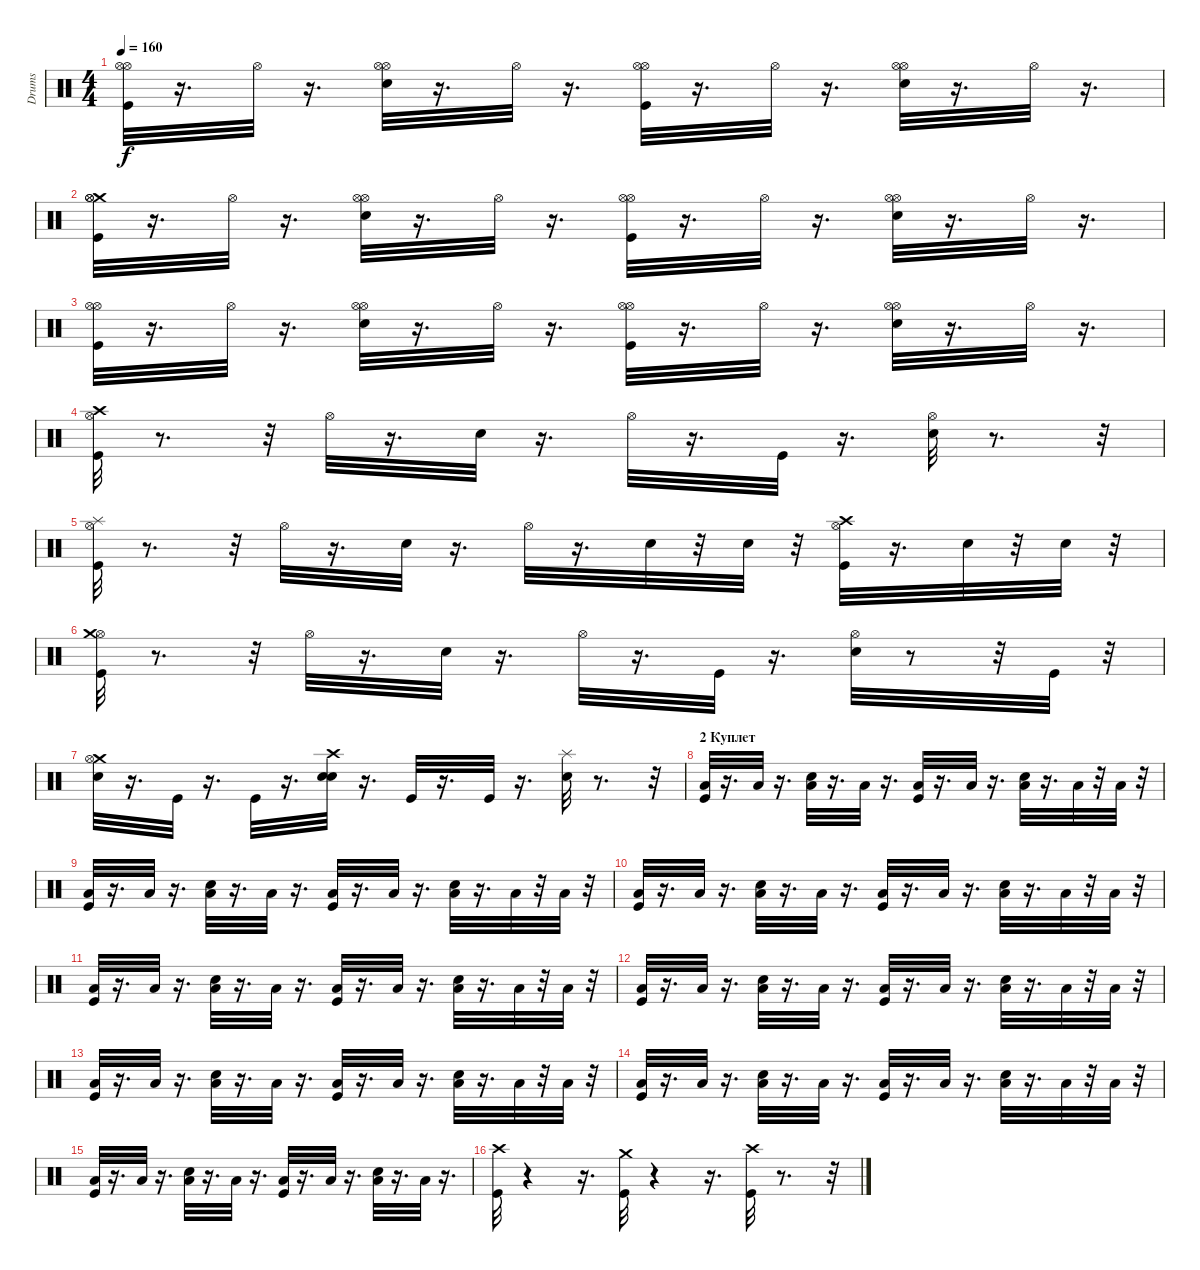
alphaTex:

\track ("Drums" "Drums") {instrument percussion}
\staff {score}
\articulation defaults
\ts (4 4)
\tempo 160
\clef neutral
\ks c
("Kick (hit)" "Hi-Hat (open)" "Hi-Hat (open)").32{dy f} r.16{d} "Hi-Hat (open)".32 r.16{d} ("Snare (hit) 2" "Hi-Hat (open)" "Hi-Hat (open)").32 r.16{d} "Hi-Hat (open)".32 r.16{d} ("Hi-Hat (open)" "Kick (hit)" "Hi-Hat (open)").32 r.16{d} "Hi-Hat (open)".32 r.16{d} ("Hi-Hat (open)" "Snare (hit) 2" "Hi-Hat (open)").32 r.16{d} "Hi-Hat (open)".32 r.16{d} |
("Crash medium (hit)" "Kick (hit)" "Hi-Hat (open)" "Hi-Hat (open)").32 r.16{d} "Hi-Hat (open)".32 r.16{d} ("Hi-Hat (open)" "Hi-Hat (open)" "Snare (hit) 2").32 r.16{d} "Hi-Hat (open)".32 r.16{d} ("Kick (hit)" "Hi-Hat (open)" "Hi-Hat (open)").32 r.16{d} "Hi-Hat (open)".32 r.16{d} ("Snare (hit) 2" "Hi-Hat (open)" "Hi-Hat (open)").32 r.16{d} "Hi-Hat (open)".32 r.16{d} |
("Kick (hit)" "Hi-Hat (open)" "Hi-Hat (open)").32 r.16{d} "Hi-Hat (open)".32 r.16{d} ("Hi-Hat (open)" "Snare (hit) 2" "Hi-Hat (open)").32 r.16{d} "Hi-Hat (open)".32 r.16{d} ("Kick (hit)" "Hi-Hat (open)" "Hi-Hat (open)").32 r.16{d} "Hi-Hat (open)".32 r.16{d} ("Snare (hit) 2" "Hi-Hat (open)" "Hi-Hat (open)").32 r.16{d} "Hi-Hat (open)".32 r.16{d} |
("Hi-Hat (open)" "Kick (hit)" "Crash high (hit)").32 r.8{d} r.32 "Hi-Hat (open)".32 r.16{d} "Snare (hit) 2".32 r.16{d} "Hi-Hat (open)".32 r.16{d} "Kick (hit)".32 r.16{d} ("Hi-Hat (open)" "Snare (hit) 2").32 r.8{d} r.32 |
("Hi-Hat (open)" "Splash (hit)" "Kick (hit)").32 r.8{d} r.32 "Hi-Hat (open)".32 r.16{d} "Snare (hit) 2".32 r.16{d} "Hi-Hat (open)".32 r.16{d} "Snare (hit) 2".32 r.32 "Snare (hit) 2".32 r.32 ("Hi-Hat (open)" "Crash high (hit)" "Kick (hit)").32 r.16{d} "Snare (hit) 2".32 r.32 "Snare (hit) 2".32 r.32 |
("Hi-Hat (open)" "Kick (hit)" "Crash medium (hit)").32 r.8{d} r.32 "Hi-Hat (open)".32 r.16{d} "Snare (hit) 2".32 r.16{d} "Hi-Hat (open)".32 r.16{d} "Kick (hit)".32 r.16{d} ("Snare (hit) 2" "Hi-Hat (open)").32 r.8 r.32 "Kick (hit)".32 r.32 |
("Crash medium (hit)" "Snare (hit) 2" "Hi-Hat (open)").32 r.16{d} "Kick (hit)".32 r.16{d} "Kick (hit)".32 r.16{d} ("Crash high (hit)" "Snare (hit) 2" "Snare (hit) 2").32 r.16{d} "Kick (hit)".32 r.16{d} "Kick (hit)".32 r.16{d} ("Splash (hit)" "Snare (hit) 2").32 r.8{d} r.32 |
\section ("" "2 Куплет")
("Kick (hit)" "Low Floor Tom (hit)").32 r.16{d} "Low Floor Tom (hit)".32 r.16{d} ("Low Floor Tom (hit)" "Snare (hit) 2").32 r.16{d} "Low Floor Tom (hit)".32 r.16{d} ("Kick (hit)" "Low Floor Tom (hit)").32 r.16{d} "Low Floor Tom (hit)".32 r.16{d} ("Low Floor Tom (hit)" "Snare (hit) 2").32 r.16{d} "Low Floor Tom (hit)".32 r.32 "Low Floor Tom (hit)".32 r.32 |
("Kick (hit)" "Low Floor Tom (hit)").32 r.16{d} "Low Floor Tom (hit)".32 r.16{d} ("Low Floor Tom (hit)" "Snare (hit) 2").32 r.16{d} "Low Floor Tom (hit)".32 r.16{d} ("Low Floor Tom (hit)" "Kick (hit)").32 r.16{d} "Low Floor Tom (hit)".32 r.16{d} ("Snare (hit) 2" "Low Floor Tom (hit)").32 r.16{d} "Low Floor Tom (hit)".32 r.32 "Low Floor Tom (hit)".32 r.32 |
("Kick (hit)" "Low Floor Tom (hit)").32 r.16{d} "Low Floor Tom (hit)".32 r.16{d} ("Low Floor Tom (hit)" "Snare (hit) 2").32 r.16{d} "Low Floor Tom (hit)".32 r.16{d} ("Kick (hit)" "Low Floor Tom (hit)").32 r.16{d} "Low Floor Tom (hit)".32 r.16{d} ("Low Floor Tom (hit)" "Snare (hit) 2").32 r.16{d} "Low Floor Tom (hit)".32 r.32 "Low Floor Tom (hit)".32 r.32 |
("Kick (hit)" "Low Floor Tom (hit)").32 r.16{d} "Low Floor Tom (hit)".32 r.16{d} ("Low Floor Tom (hit)" "Snare (hit) 2").32 r.16{d} "Low Floor Tom (hit)".32 r.16{d} ("Low Floor Tom (hit)" "Kick (hit)").32 r.16{d} "Low Floor Tom (hit)".32 r.16{d} ("Snare (hit) 2" "Low Floor Tom (hit)").32 r.16{d} "Low Floor Tom (hit)".32 r.32 "Low Floor Tom (hit)".32 r.32 |
("Kick (hit)" "Low Floor Tom (hit)").32 r.16{d} "Low Floor Tom (hit)".32 r.16{d} ("Low Floor Tom (hit)" "Snare (hit) 2").32 r.16{d} "Low Floor Tom (hit)".32 r.16{d} ("Kick (hit)" "Low Floor Tom (hit)").32 r.16{d} "Low Floor Tom (hit)".32 r.16{d} ("Low Floor Tom (hit)" "Snare (hit) 2").32 r.16{d} "Low Floor Tom (hit)".32 r.32 "Low Floor Tom (hit)".32 r.32 |
("Kick (hit)" "Low Floor Tom (hit)").32 r.16{d} "Low Floor Tom (hit)".32 r.16{d} ("Low Floor Tom (hit)" "Snare (hit) 2").32 r.16{d} "Low Floor Tom (hit)".32 r.16{d} ("Low Floor Tom (hit)" "Kick (hit)").32 r.16{d} "Low Floor Tom (hit)".32 r.16{d} ("Snare (hit) 2" "Low Floor Tom (hit)").32 r.16{d} "Low Floor Tom (hit)".32 r.32 "Low Floor Tom (hit)".32 r.32 |
("Kick (hit)" "Low Floor Tom (hit)").32 r.16{d} "Low Floor Tom (hit)".32 r.16{d} ("Low Floor Tom (hit)" "Snare (hit) 2").32 r.16{d} "Low Floor Tom (hit)".32 r.16{d} ("Kick (hit)" "Low Floor Tom (hit)").32 r.16{d} "Low Floor Tom (hit)".32 r.16{d} ("Low Floor Tom (hit)" "Snare (hit) 2").32 r.16{d} "Low Floor Tom (hit)".32 r.32 "Low Floor Tom (hit)".32 r.32 |
("Kick (hit)" "Low Floor Tom (hit)").32 r.16{d} "Low Floor Tom (hit)".32 r.16{d} ("Low Floor Tom (hit)" "Snare (hit) 2").32 r.16{d} "Low Floor Tom (hit)".32 r.16{d} ("Low Floor Tom (hit)" "Kick (hit)").32 r.16{d} "Low Floor Tom (hit)".32 r.16{d} ("Snare (hit) 2" "Low Floor Tom (hit)").32 r.16{d} "Low Floor Tom (hit)".32 r.16{d} |
("Crash high (hit)" "Kick (hit)").32 r.4 r.16{d} ("Kick (hit)" "Crash medium (hit)").32 r.4 r.16{d} ("Crash high (hit)" "Kick (hit)").32 r.8{d} r.32
